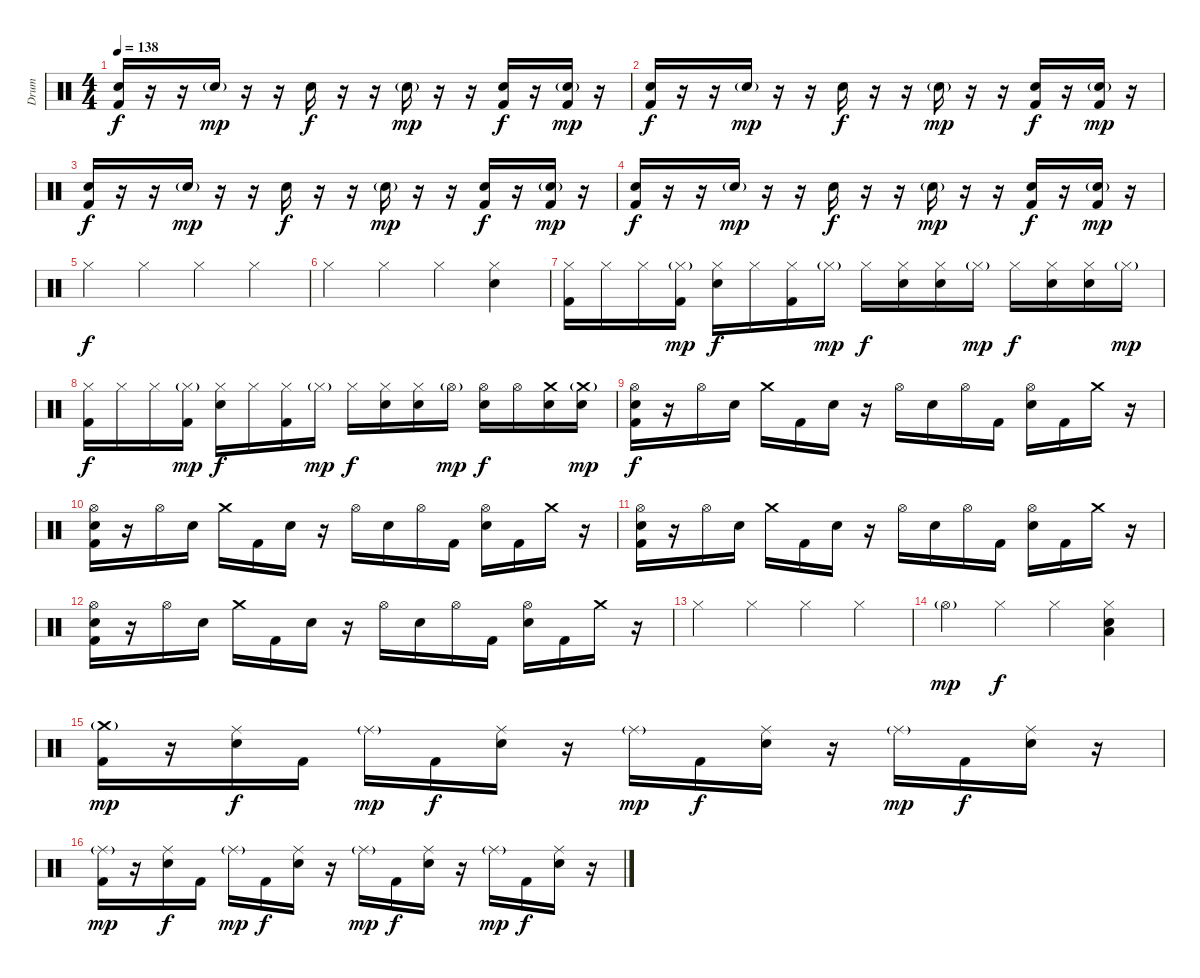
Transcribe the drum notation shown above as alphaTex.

\track ("Drum" "Drum") {instrument percussion}
\staff {score}
\articulation defaults
\ts (4 4)
\tempo 138
\clef neutral
\ks c
("Electric Snare (hit)" "Kick (hit) 2").16{dy f} r.16 r.16 "Electric Snare (hit)"{g}.16{dy mp} r.16 r.16 "Electric Snare (hit)".16{dy f} r.16 r.16 "Electric Snare (hit)"{g}.16{dy mp} r.16 r.16 ("Electric Snare (hit)" "Kick (hit) 2").16{dy f} r.16 ("Electric Snare (hit)"{g} "Kick (hit) 2").16{dy mp} r.16 |
("Electric Snare (hit)" "Kick (hit) 2").16{dy f} r.16 r.16 "Electric Snare (hit)"{g}.16{dy mp} r.16 r.16 "Electric Snare (hit)".16{dy f} r.16 r.16 "Electric Snare (hit)"{g}.16{dy mp} r.16 r.16 ("Electric Snare (hit)" "Kick (hit) 2").16{dy f} r.16 ("Electric Snare (hit)"{g} "Kick (hit) 2").16{dy mp} r.16 |
("Electric Snare (hit)" "Kick (hit) 2").16{dy f} r.16 r.16 "Electric Snare (hit)"{g}.16{dy mp} r.16 r.16 "Electric Snare (hit)".16{dy f} r.16 r.16 "Electric Snare (hit)"{g}.16{dy mp} r.16 r.16 ("Electric Snare (hit)" "Kick (hit) 2").16{dy f} r.16 ("Electric Snare (hit)"{g} "Kick (hit) 2").16{dy mp} r.16 |
("Electric Snare (hit)" "Kick (hit) 2").16{dy f} r.16 r.16 "Electric Snare (hit)"{g}.16{dy mp} r.16 r.16 "Electric Snare (hit)".16{dy f} r.16 r.16 "Electric Snare (hit)"{g}.16{dy mp} r.16 r.16 ("Electric Snare (hit)" "Kick (hit) 2").16{dy f} r.16 ("Electric Snare (hit)"{g} "Kick (hit) 2").16{dy mp} r.16 |
"Hi-Hat (closed)".4{dy f} "Hi-Hat (closed)".4 "Hi-Hat (closed)".4 "Hi-Hat (closed)".4 |
"Hi-Hat (closed)".4 "Hi-Hat (closed)".4 "Hi-Hat (closed)".4 ("Hi-Hat (closed)" "Electric Snare (hit)").4 |
("Hi-Hat (closed)" "Kick (hit) 2").16 "Hi-Hat (closed)".16 "Hi-Hat (closed)".16 ("Hi-Hat (closed)"{g} "Kick (hit) 2").16{dy mp} ("Hi-Hat (closed)" "Electric Snare (hit)").16{dy f} "Hi-Hat (closed)".16 ("Hi-Hat (closed)" "Kick (hit) 2").16 "Hi-Hat (closed)"{g}.16{dy mp} "Hi-Hat (closed)".16{dy f} ("Hi-Hat (closed)" "Electric Snare (hit)").16 ("Hi-Hat (closed)" "Electric Snare (hit)").16 "Hi-Hat (closed)"{g}.16{dy mp} "Hi-Hat (closed)".16{dy f} ("Hi-Hat (closed)" "Electric Snare (hit)").16 ("Hi-Hat (closed)" "Electric Snare (hit)").16 "Hi-Hat (closed)"{g}.16{dy mp} |
("Hi-Hat (closed)" "Kick (hit) 2").16{dy f} "Hi-Hat (closed)".16 "Hi-Hat (closed)".16 ("Hi-Hat (closed)"{g} "Kick (hit) 2").16{dy mp} ("Hi-Hat (closed)" "Electric Snare (hit)").16{dy f} "Hi-Hat (closed)".16 ("Hi-Hat (closed)" "Kick (hit) 2").16 "Hi-Hat (closed)"{g}.16{dy mp} "Hi-Hat (closed)".16{dy f} ("Hi-Hat (closed)" "Electric Snare (hit)").16 ("Hi-Hat (closed)" "Electric Snare (hit)").16 "Hi-Hat (open)"{g}.16{dy mp} ("Hi-Hat (open)" "Electric Snare (hit)").16{dy f} "Hi-Hat (open)".16 ("Crash medium (hit)" "Electric Snare (hit)").16 ("Crash medium (hit)"{g} "Electric Snare (hit)").16{dy mp} |
("Hi-Hat (open)" "Electric Snare (hit)" "Kick (hit) 2").16{dy f} r.16 "Hi-Hat (open)".16 "Electric Snare (hit)".16 "Crash medium (hit)".16 "Kick (hit) 2".16 "Electric Snare (hit)".16 r.16 "Hi-Hat (open)".16 "Electric Snare (hit)".16 "Hi-Hat (open)".16 "Kick (hit) 2".16 ("Hi-Hat (open)" "Electric Snare (hit)").16 "Kick (hit) 2".16 "Crash medium (hit)".16 r.16 |
("Hi-Hat (open)" "Electric Snare (hit)" "Kick (hit) 2").16 r.16 "Hi-Hat (open)".16 "Electric Snare (hit)".16 "Crash medium (hit)".16 "Kick (hit) 2".16 "Electric Snare (hit)".16 r.16 "Hi-Hat (open)".16 "Electric Snare (hit)".16 "Hi-Hat (open)".16 "Kick (hit) 2".16 ("Hi-Hat (open)" "Electric Snare (hit)").16 "Kick (hit) 2".16 "Crash medium (hit)".16 r.16 |
("Hi-Hat (open)" "Electric Snare (hit)" "Kick (hit) 2").16 r.16 "Hi-Hat (open)".16 "Electric Snare (hit)".16 "Crash medium (hit)".16 "Kick (hit) 2".16 "Electric Snare (hit)".16 r.16 "Hi-Hat (open)".16 "Electric Snare (hit)".16 "Hi-Hat (open)".16 "Kick (hit) 2".16 ("Hi-Hat (open)" "Electric Snare (hit)").16 "Kick (hit) 2".16 "Crash medium (hit)".16 r.16 |
("Hi-Hat (open)" "Electric Snare (hit)" "Kick (hit) 2").16 r.16 "Hi-Hat (open)".16 "Electric Snare (hit)".16 "Crash medium (hit)".16 "Kick (hit) 2".16 "Electric Snare (hit)".16 r.16 "Hi-Hat (open)".16 "Electric Snare (hit)".16 "Hi-Hat (open)".16 "Kick (hit) 2".16 ("Hi-Hat (open)" "Electric Snare (hit)").16 "Kick (hit) 2".16 "Crash medium (hit)".16 r.16 |
"Hi-Hat (closed)".4 "Hi-Hat (closed)".4 "Hi-Hat (closed)".4 "Hi-Hat (closed)".4 |
"Hi-Hat (open)"{g}.4{dy mp} "Hi-Hat (closed)".4{dy f} "Hi-Hat (closed)".4 ("Hi-Hat (closed)" "Low Floor Tom (hit)" "Electric Snare (hit)").4 |
("Crash medium (hit)"{g} "Kick (hit) 2").16{dy mp} r.16 ("Ride (middle)" "Electric Snare (hit)").16{dy f} "Kick (hit) 2".16 "Ride (middle)"{g}.16{dy mp} "Kick (hit) 2".16{dy f} ("Ride (middle)" "Electric Snare (hit)").16 r.16 "Ride (middle)"{g}.16{dy mp} "Kick (hit) 2".16{dy f} ("Ride (middle)" "Electric Snare (hit)").16 r.16 "Ride (middle)"{g}.16{dy mp} "Kick (hit) 2".16{dy f} ("Ride (middle)" "Electric Snare (hit)").16 r.16 |
("Ride (middle)"{g} "Kick (hit) 2").16{dy mp} r.16 ("Ride (middle)" "Electric Snare (hit)").16{dy f} "Kick (hit) 2".16 "Ride (middle)"{g}.16{dy mp} "Kick (hit) 2".16{dy f} ("Ride (middle)" "Electric Snare (hit)").16 r.16 "Ride (middle)"{g}.16{dy mp} "Kick (hit) 2".16{dy f} ("Ride (middle)" "Electric Snare (hit)").16 r.16 "Ride (middle)"{g}.16{dy mp} "Kick (hit) 2".16{dy f} ("Ride (middle)" "Electric Snare (hit)").16 r.16
